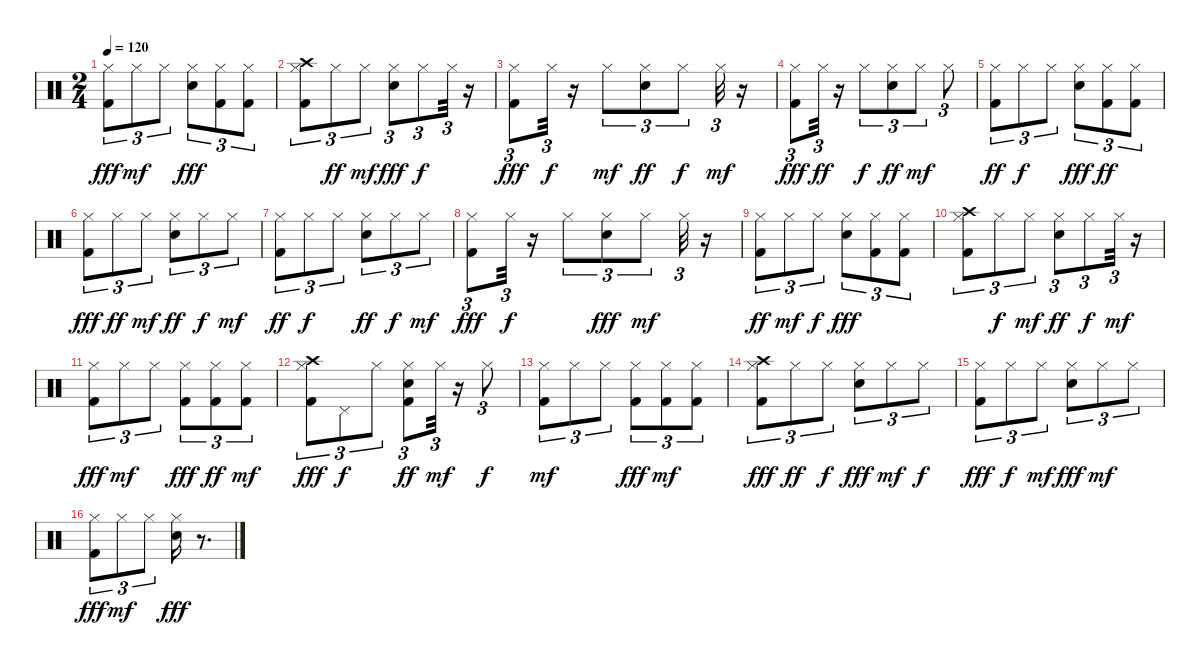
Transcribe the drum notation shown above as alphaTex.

\track "" {instrument percussion}
\staff {score}
\articulation defaults
\ts (2 4)
\tempo 120
\clef neutral
\ks c
("Kick (hit) 2" "Hi-Hat (closed)").8{tu (3 2) dy fff} "Hi-Hat (closed)".8{tu (3 2) dy mf} "Hi-Hat (closed)".8{tu (3 2)} ("Snare (hit) 2" "Hi-Hat (closed)").8{tu (3 2) dy fff} ("Hi-Hat (closed)" "Kick (hit) 2").8{tu (3 2)} ("Hi-Hat (closed)" "Kick (hit) 2").8{tu (3 2)} |
("Hi-Hat (closed)" "Crash high (hit)" "Kick (hit) 2").8{tu (3 2)} "Hi-Hat (closed)".8{tu (3 2) dy ff} "Hi-Hat (closed)".8{tu (3 2) dy mf} ("Hi-Hat (closed)" "Snare (hit) 2").8{tu (3 2) dy fff} "Hi-Hat (closed)".8{tu (3 2) dy f} "Hi-Hat (closed)".32{tu (3 2)} r.16 |
("Kick (hit) 2" "Hi-Hat (closed)").8{tu (3 2) dy fff} "Hi-Hat (closed)".32{tu (3 2) dy f} r.16 "Hi-Hat (closed)".8{tu (3 2) dy mf} ("Snare (hit) 2" "Hi-Hat (closed)").8{tu (3 2) dy ff} "Hi-Hat (closed)".8{tu (3 2) dy f} "Hi-Hat (closed)".32{tu (3 2) dy mf} r.16 |
("Kick (hit) 2" "Hi-Hat (closed)").8{tu (3 2) dy fff} "Hi-Hat (closed)".32{tu (3 2) dy ff} r.16 "Hi-Hat (closed)".8{tu (3 2) dy f} ("Snare (hit) 2" "Hi-Hat (closed)").8{tu (3 2) dy ff} "Hi-Hat (closed)".8{tu (3 2) dy mf} "Hi-Hat (closed)".8{tu (3 2)} |
("Kick (hit) 2" "Hi-Hat (closed)").8{tu (3 2) dy ff} "Hi-Hat (closed)".8{tu (3 2) dy f} "Hi-Hat (closed)".8{tu (3 2)} ("Snare (hit) 2" "Hi-Hat (closed)").8{tu (3 2) dy fff} ("Hi-Hat (closed)" "Kick (hit) 2").8{tu (3 2) dy ff} ("Hi-Hat (closed)" "Kick (hit) 2").8{tu (3 2)} |
("Hi-Hat (closed)" "Kick (hit) 2").8{tu (3 2) dy fff} "Hi-Hat (closed)".8{tu (3 2) dy ff} "Hi-Hat (closed)".8{tu (3 2) dy mf} ("Snare (hit) 2" "Hi-Hat (closed)").8{tu (3 2) dy ff} "Hi-Hat (closed)".8{tu (3 2) dy f} "Hi-Hat (closed)".8{tu (3 2) dy mf} |
("Kick (hit) 2" "Hi-Hat (closed)").8{tu (3 2) dy ff} "Hi-Hat (closed)".8{tu (3 2) dy f} "Hi-Hat (closed)".8{tu (3 2)} ("Snare (hit) 2" "Hi-Hat (closed)").8{tu (3 2) dy ff} "Hi-Hat (closed)".8{tu (3 2) dy f} "Hi-Hat (closed)".8{tu (3 2) dy mf} |
("Kick (hit) 2" "Hi-Hat (closed)").8{tu (3 2) dy fff} "Hi-Hat (closed)".32{tu (3 2) dy f} r.16 "Hi-Hat (closed)".8{tu (3 2)} ("Hi-Hat (closed)" "Snare (hit) 2").8{tu (3 2) dy fff} "Hi-Hat (closed)".8{tu (3 2) dy mf} "Hi-Hat (closed)".32{tu (3 2)} r.16 |
("Kick (hit) 2" "Hi-Hat (closed)").8{tu (3 2) dy ff} "Hi-Hat (closed)".8{tu (3 2) dy mf} "Hi-Hat (closed)".8{tu (3 2) dy f} ("Snare (hit) 2" "Hi-Hat (closed)").8{tu (3 2) dy fff} ("Hi-Hat (closed)" "Kick (hit) 2").8{tu (3 2)} ("Hi-Hat (closed)" "Kick (hit) 2").8{tu (3 2)} |
("Hi-Hat (closed)" "Crash high (hit)" "Kick (hit) 2").8{tu (3 2)} "Hi-Hat (closed)".8{tu (3 2) dy f} "Hi-Hat (closed)".8{tu (3 2) dy mf} ("Snare (hit) 2" "Hi-Hat (closed)").8{tu (3 2) dy ff} "Hi-Hat (closed)".8{tu (3 2) dy f} "Hi-Hat (closed)".32{tu (3 2) dy mf} r.16 |
("Kick (hit) 2" "Hi-Hat (closed)").8{tu (3 2) dy fff} "Hi-Hat (closed)".8{tu (3 2) dy mf} "Hi-Hat (closed)".8{tu (3 2)} ("Kick (hit) 2" "Hi-Hat (closed)").8{tu (3 2) dy fff} ("Hi-Hat (closed)" "Kick (hit) 2").8{tu (3 2) dy ff} ("Hi-Hat (closed)" "Kick (hit) 2").8{tu (3 2) dy mf} |
("Crash high (hit)" "Kick (hit) 2" "Hi-Hat (closed)").8{tu (3 2) dy fff} "Pedal Hi-Hat (hit)".8{tu (3 2) dy f} "Hi-Hat (closed)".8{tu (3 2)} ("Snare (hit) 2" "Kick (hit) 2" "Hi-Hat (closed)").8{tu (3 2) dy ff} "Hi-Hat (closed)".32{tu (3 2) dy mf} r.16 "Hi-Hat (closed)".8{tu (3 2) dy f} |
("Kick (hit) 2" "Hi-Hat (closed)").8{tu (3 2) dy mf} "Hi-Hat (closed)".8{tu (3 2)} "Hi-Hat (closed)".8{tu (3 2)} ("Kick (hit) 2" "Hi-Hat (closed)").8{tu (3 2) dy fff} ("Kick (hit) 2" "Hi-Hat (closed)").8{tu (3 2) dy mf} ("Kick (hit) 2" "Hi-Hat (closed)").8{tu (3 2)} |
("Crash high (hit)" "Hi-Hat (closed)" "Kick (hit) 2").8{tu (3 2) dy fff} "Hi-Hat (closed)".8{tu (3 2) dy ff} "Hi-Hat (closed)".8{tu (3 2) dy f} ("Snare (hit) 2" "Hi-Hat (closed)").8{tu (3 2) dy fff} "Hi-Hat (closed)".8{tu (3 2) dy mf} "Hi-Hat (closed)".8{tu (3 2) dy f} |
("Kick (hit) 2" "Hi-Hat (closed)").8{tu (3 2) dy fff} "Hi-Hat (closed)".8{tu (3 2) dy f} "Hi-Hat (closed)".8{tu (3 2) dy mf} ("Snare (hit) 2" "Hi-Hat (closed)").8{tu (3 2) dy fff} "Hi-Hat (closed)".8{tu (3 2) dy mf} "Hi-Hat (closed)".8{tu (3 2)} |
("Kick (hit) 2" "Hi-Hat (closed)").8{tu (3 2) dy fff} "Hi-Hat (closed)".8{tu (3 2) dy mf} "Hi-Hat (closed)".8{tu (3 2)} ("Snare (hit) 2" "Hi-Hat (closed)").16{dy fff} r.8{d}
